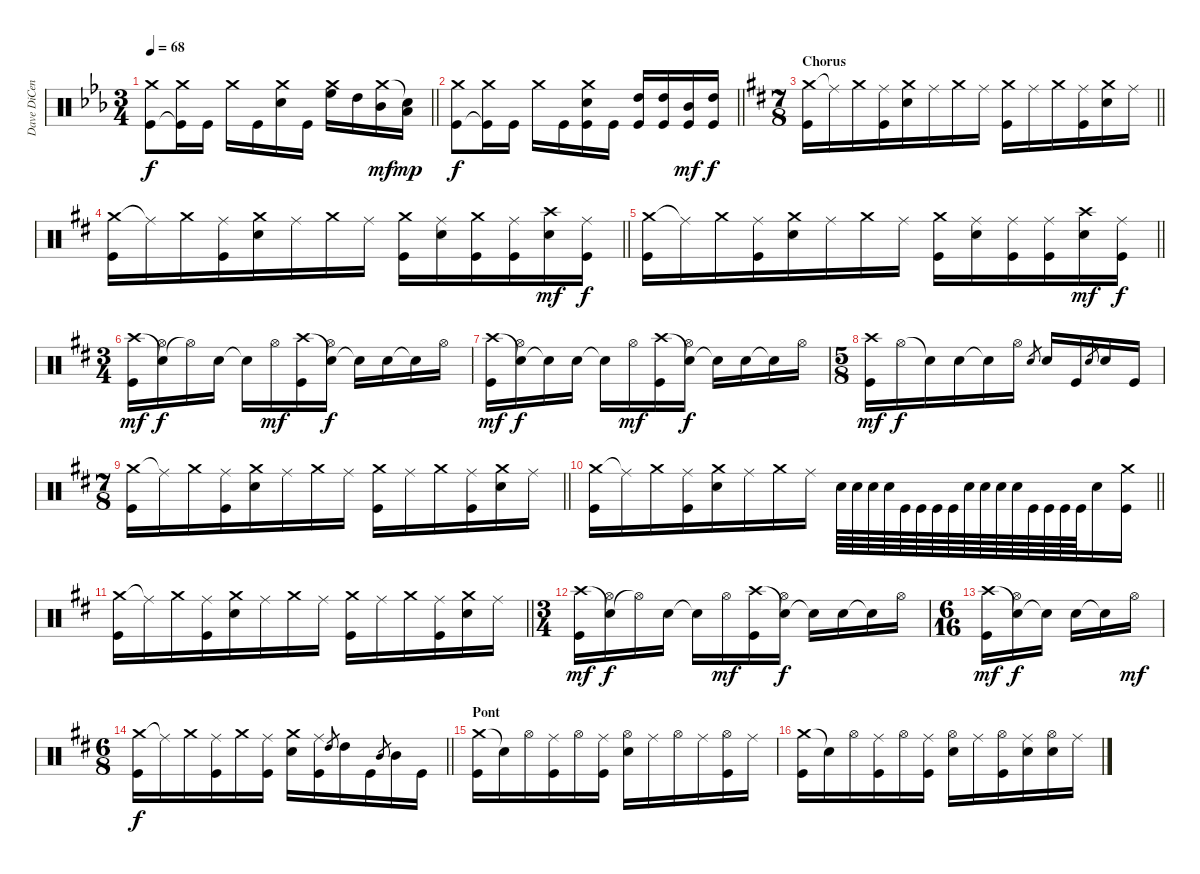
\track ("Dave DiCenso" "Dave DiCen") {instrument percussion}
\staff {score}
\articulation defaults
\ts (3 4)
\tempo 68
\clef neutral
\barLineRight lightlight
\ks eb
("Crash medium (hit)" "Kick (hit)").8{dy f} ("Crash medium (hit)" "Kick (hit)"{t}).16 "Kick (hit)".16 "Crash medium (hit)".16 "Kick (hit)".16 ("Crash medium (hit)" "Electric Snare (hit)").16 "Kick (hit)".16 ("Crash medium (hit)" "High Floor Tom (hit)").16 "High Tom (hit)".16 ("Crash medium (hit)" "Mid Tom (hit)").16{dy mf} ("Snare (hit)"{t} "Low Tom (hit)").16{dy mp} |
\barLineRight lightlight
("Crash medium (hit)" "Kick (hit)").8{dy f} ("Crash medium (hit)" "Kick (hit)"{t}).16 "Kick (hit)".16 "Crash medium (hit)".16 "Kick (hit)".16 ("Crash medium (hit)" "Electric Snare (hit)" "Kick (hit)").16 "Kick (hit)".16 ("High Tom (hit)" "Kick (hit)").16 ("High Tom (hit)" "Kick (hit)").16 ("Mid Tom (hit)" "Kick (hit)").16{dy mf} ("High Tom (hit)" "Kick (hit)").16{dy f} |
\ts (7 8)
\section ("" "Chorus")
\barLineRight lightlight
\ks d
("Crash medium (hit)" "Kick (hit)").16 "Ride (middle)"{t}.16 "Crash medium (hit)".16 ("Ride (middle)" "Kick (hit)").16 ("Crash medium (hit)" "Electric Snare (hit)").16 "Ride (middle)".16 "Crash medium (hit)".16 "Ride (middle)".16 ("Crash medium (hit)" "Kick (hit)").16 "Ride (middle)".16 "Crash medium (hit)".16 ("Ride (middle)" "Kick (hit)").16 ("Crash medium (hit)" "Electric Snare (hit)").16 "Ride (middle)".16 |
\barLineRight lightlight
("Crash medium (hit)" "Kick (hit)").16 "Ride (middle)"{t}.16 "Crash medium (hit)".16 ("Ride (middle)" "Kick (hit)").16 ("Crash medium (hit)" "Electric Snare (hit)").16 "Ride (middle)".16 "Crash medium (hit)".16 "Ride (middle)".16 ("Crash medium (hit)" "Kick (hit)").16 ("Ride (middle)" "Electric Snare (hit)").16 ("Crash medium (hit)" "Kick (hit)").16 ("Ride (middle)" "Kick (hit)").16 ("Crash high (hit)" "Electric Snare (hit)").16{dy mf} ("Ride (middle)" "Kick (hit)").16{dy f} |
\barLineRight lightlight
("Crash medium (hit)" "Kick (hit)").16 "Ride (middle)"{t}.16 "Crash medium (hit)".16 ("Ride (middle)" "Kick (hit)").16 ("Crash medium (hit)" "Electric Snare (hit)").16 "Ride (middle)".16 "Crash medium (hit)".16 "Ride (middle)".16 ("Crash medium (hit)" "Kick (hit)").16 ("Ride (middle)" "Electric Snare (hit)").16 ("Ride (middle)" "Kick (hit)").16 ("Ride (middle)" "Kick (hit)").16 ("Crash high (hit)" "Electric Snare (hit)").16{dy mf} ("Ride (middle)" "Kick (hit)").16{dy f} |
\ts (3 4)
("Crash high (hit)" "Kick (hit)").16{dy mf} ("Snare (hit)"{t} "Hi-Hat (open)").16{dy f} "Hi-Hat (open)"{t}.16 "Electric Snare (hit)".16 "Snare (hit)"{t}.16 "Hi-Hat (open)".16{dy mf} ("Crash high (hit)" "Kick (hit)").16 ("Snare (hit)"{t} "Hi-Hat (open)").16{dy f} "Snare (hit)"{t}.16 "Electric Snare (hit)".16 "Snare (hit)"{t}.16 "Hi-Hat (open)".16 |
("Crash high (hit)" "Kick (hit)").16{dy mf} ("Snare (hit)"{t} "Hi-Hat (open)").16{dy f} "Snare (hit)"{t}.16 "Electric Snare (hit)".16 "Snare (hit)"{t}.16 "Hi-Hat (open)".16{dy mf} ("Crash high (hit)" "Kick (hit)").16 ("Snare (hit)"{t} "Hi-Hat (open)").16{dy f} "Snare (hit)"{t}.16 "Electric Snare (hit)".16 "Snare (hit)"{t}.16 "Hi-Hat (open)".16 |
\ts (5 8)
("Crash high (hit)" "Kick (hit)").16{dy mf} "Hi-Hat (open)".16{dy f} "Snare (hit)"{t}.16 "Electric Snare (hit)".16 "Snare (hit)"{t}.16 "Hi-Hat (open)".16 "Electric Snare (hit)".8{gr} "Electric Snare (hit)".16 "Kick (hit)".16 "Electric Snare (hit)".8{gr} "Electric Snare (hit)".16 "Kick (hit)".16 |
\ts (7 8)
\barLineRight lightlight
("Crash medium (hit)" "Kick (hit)").16 "Ride (middle)"{t}.16 "Crash medium (hit)".16 ("Ride (middle)" "Kick (hit)").16 ("Crash medium (hit)" "Electric Snare (hit)").16 "Ride (middle)".16 "Crash medium (hit)".16 "Ride (middle)".16 ("Crash medium (hit)" "Kick (hit)").16 "Ride (middle)".16 "Crash medium (hit)".16 ("Ride (middle)" "Kick (hit)").16 ("Crash medium (hit)" "Electric Snare (hit)").16 "Ride (middle)".16 |
\barLineRight lightlight
("Crash medium (hit)" "Kick (hit)").16 "Ride (middle)"{t}.16 "Crash medium (hit)".16 ("Ride (middle)" "Kick (hit)").16 ("Crash medium (hit)" "Electric Snare (hit)").16 "Ride (middle)".16 "Crash medium (hit)".16 "Ride (middle)".16 "Electric Snare (hit)".64 "Electric Snare (hit)".64 "Electric Snare (hit)".64 "Electric Snare (hit)".64 "Kick (hit)".64 "Kick (hit)".64 "Kick (hit)".64 "Kick (hit)".64 "Electric Snare (hit)".64 "Electric Snare (hit)".64 "Electric Snare (hit)".64 "Electric Snare (hit)".64 "Kick (hit)".64 "Kick (hit)".64 "Kick (hit)".64 "Kick (hit)".64 "Electric Snare (hit)".16 ("Crash medium (hit)" "Kick (hit)").16 |
\barLineRight lightlight
("Crash medium (hit)" "Kick (hit)").16 "Ride (middle)"{t}.16 "Crash medium (hit)".16 ("Ride (middle)" "Kick (hit)").16 ("Crash medium (hit)" "Electric Snare (hit)").16 "Ride (middle)".16 "Crash medium (hit)".16 "Ride (middle)".16 ("Crash medium (hit)" "Kick (hit)").16 "Ride (middle)".16 "Crash medium (hit)".16 ("Ride (middle)" "Kick (hit)").16 ("Crash medium (hit)" "Electric Snare (hit)").16 "Ride (middle)".16 |
\ts (3 4)
("Crash high (hit)" "Kick (hit)").16{dy mf} ("Snare (hit)"{t} "Hi-Hat (open)").16{dy f} "Hi-Hat (open)"{t}.16 "Electric Snare (hit)".16 "Snare (hit)"{t}.16 "Hi-Hat (open)".16{dy mf} ("Crash high (hit)" "Kick (hit)").16 ("Snare (hit)"{t} "Hi-Hat (open)").16{dy f} "Snare (hit)"{t}.16 "Electric Snare (hit)".16 "Snare (hit)"{t}.16 "Hi-Hat (open)".16 |
\ts (6 16)
("Crash high (hit)" "Kick (hit)").16{dy mf} ("Snare (hit)"{t} "Hi-Hat (open)").16{dy f} "Snare (hit)"{t}.16 "Electric Snare (hit)".16 "Snare (hit)"{t}.16 "Hi-Hat (open)".16{dy mf} |
\ts (6 8)
\barLineRight lightlight
("Crash medium (hit)" "Kick (hit)").16{dy f} "Ride (middle)"{t}.16 "Crash medium (hit)".16 ("Ride (middle)" "Kick (hit)").16 "Crash medium (hit)".16 ("Ride (middle)" "Kick (hit)").16 ("Crash medium (hit)" "Electric Snare (hit)").16 ("Ride (middle)" "Kick (hit)").16 "High Tom (hit)".8{gr} "High Tom (hit)".16 "Kick (hit)".16 "Mid Tom (hit)".8{gr} "Mid Tom (hit)".16 "Kick (hit)".16 |
\section ("" "Pont")
("Crash medium (hit)" "Kick (hit)").16 "Snare (hit)"{t}.16 "Hi-Hat (open)".16 ("Ride (middle)" "Kick (hit)").16 "Hi-Hat (open)".16 ("Ride (middle)" "Kick (hit)").16 ("Hi-Hat (open)" "Electric Snare (hit)").16 "Ride (middle)".16 "Hi-Hat (open)".16 "Ride (middle)".16 ("Hi-Hat (open)" "Kick (hit)").16 "Ride (middle)".16 |
("Crash medium (hit)" "Kick (hit)").16 "Snare (hit)"{t}.16 "Hi-Hat (open)".16 ("Ride (middle)" "Kick (hit)").16 "Hi-Hat (open)".16 ("Ride (middle)" "Kick (hit)").16 ("Hi-Hat (open)" "Electric Snare (hit)").16 "Ride (middle)".16 ("Hi-Hat (open)" "Kick (hit)").16 ("Ride (middle)" "Electric Snare (hit)").16 ("Hi-Hat (open)" "Electric Snare (hit)").16 "Ride (middle)".16
